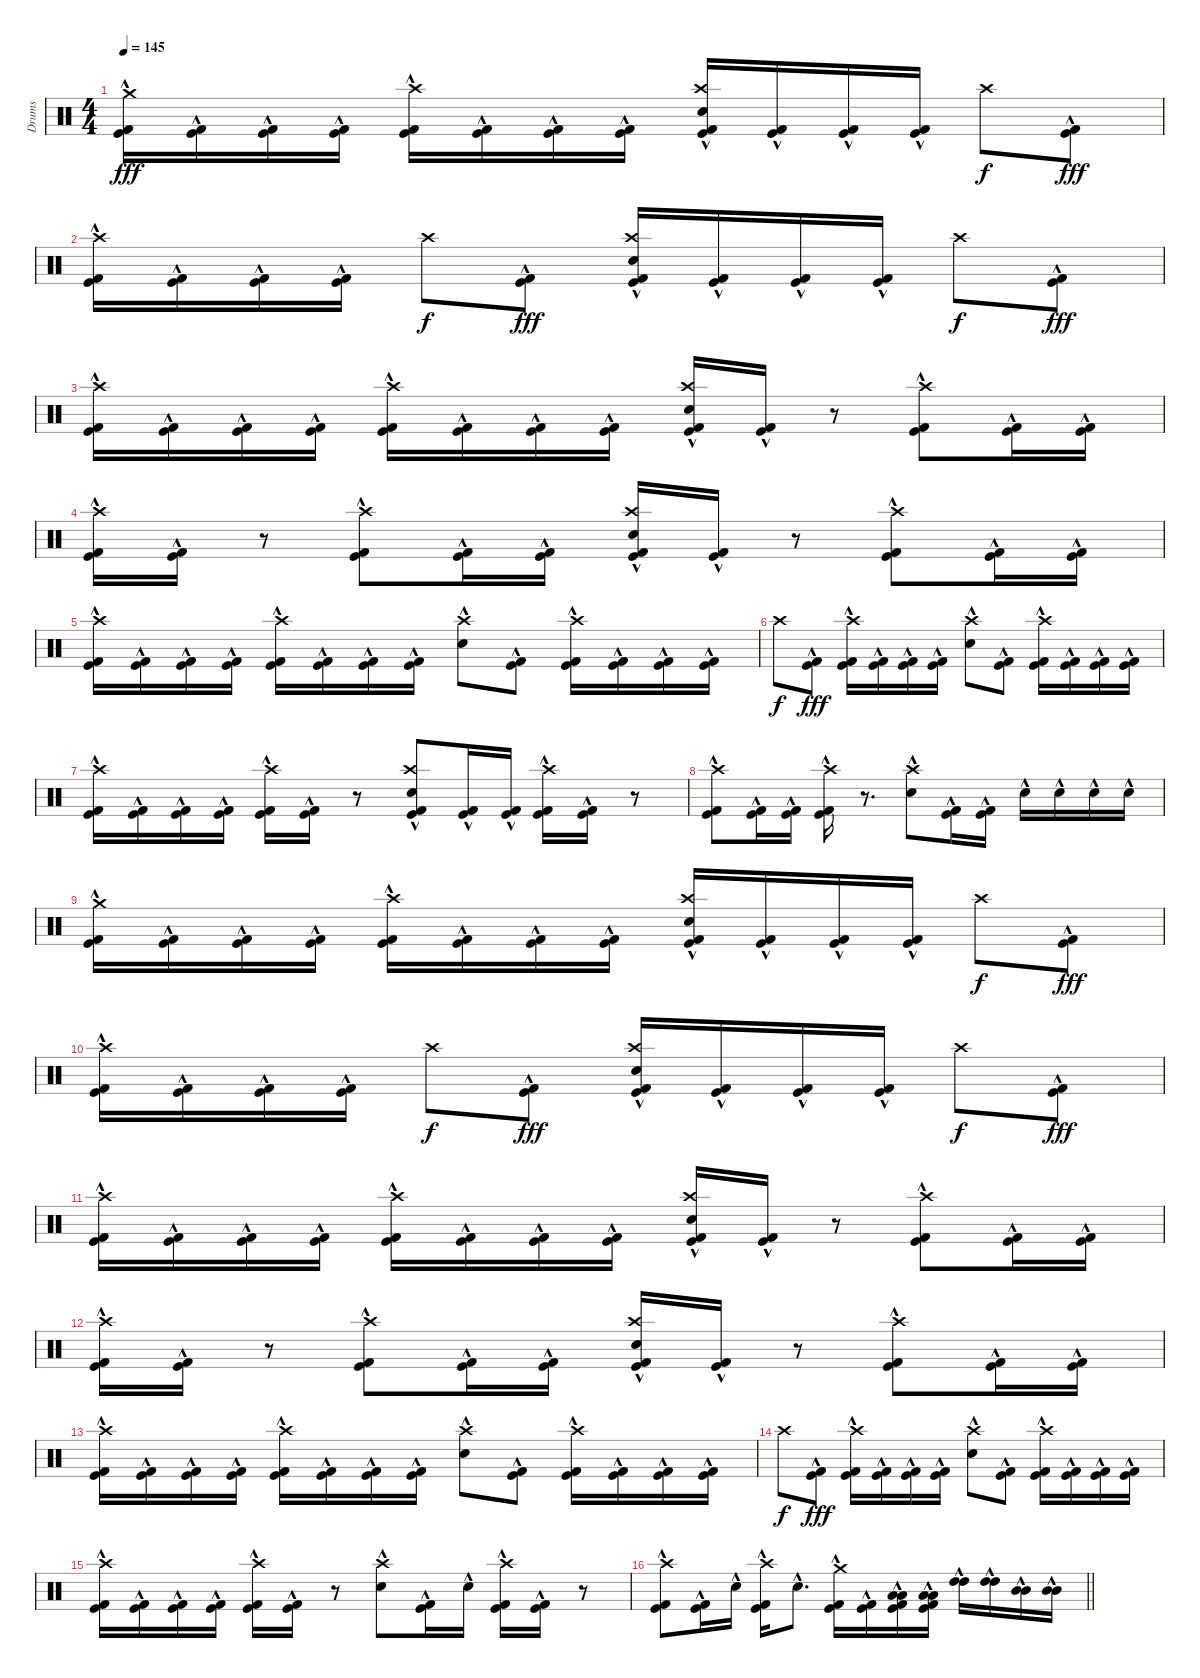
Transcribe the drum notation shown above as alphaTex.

\track ("Drums" "Drums") {instrument percussion}
\staff {score}
\articulation defaults
\ts (4 4)
\tempo 145
\clef neutral
\ks c
("Crash medium (hit)" "Kick (hit)"{hac} "Kick (hit) 2"{hac}).16{dy fff} ("Kick (hit)"{hac} "Kick (hit) 2"{hac}).16 ("Kick (hit)"{hac} "Kick (hit) 2"{hac}).16 ("Kick (hit)"{hac} "Kick (hit) 2"{hac}).16 ("Crash high (hit)" "Kick (hit)"{hac} "Kick (hit) 2"{hac}).16 ("Kick (hit)"{hac} "Kick (hit) 2"{hac}).16 ("Kick (hit)"{hac} "Kick (hit) 2"{hac}).16 ("Kick (hit)"{hac} "Kick (hit) 2"{hac}).16 ("Crash high (hit)" "Electric Snare (hit)"{hac} "Kick (hit)"{hac} "Kick (hit) 2"{hac}).16 ("Kick (hit)"{hac} "Kick (hit) 2"{hac}).16 ("Kick (hit)"{hac} "Kick (hit) 2"{hac}).16 ("Kick (hit)"{hac} "Kick (hit) 2"{hac}).16 "Crash high (hit)".8{dy f} ("Kick (hit)"{hac} "Kick (hit) 2"{hac}).8{dy fff} |
("Crash high (hit)" "Kick (hit)"{hac} "Kick (hit) 2"{hac}).16 ("Kick (hit)"{hac} "Kick (hit) 2"{hac}).16 ("Kick (hit)"{hac} "Kick (hit) 2"{hac}).16 ("Kick (hit)"{hac} "Kick (hit) 2"{hac}).16 "Crash high (hit)".8{dy f} ("Kick (hit)"{hac} "Kick (hit) 2"{hac}).8{dy fff} ("Crash high (hit)" "Electric Snare (hit)"{hac} "Kick (hit)"{hac} "Kick (hit) 2"{hac}).16 ("Kick (hit)"{hac} "Kick (hit) 2"{hac}).16 ("Kick (hit)"{hac} "Kick (hit) 2"{hac}).16 ("Kick (hit)"{hac} "Kick (hit) 2"{hac}).16 "Crash high (hit)".8{dy f} ("Kick (hit)"{hac} "Kick (hit) 2"{hac}).8{dy fff} |
("Crash high (hit)" "Kick (hit)"{hac} "Kick (hit) 2"{hac}).16 ("Kick (hit)"{hac} "Kick (hit) 2"{hac}).16 ("Kick (hit)"{hac} "Kick (hit) 2"{hac}).16 ("Kick (hit)"{hac} "Kick (hit) 2"{hac}).16 ("Crash high (hit)" "Kick (hit)"{hac} "Kick (hit) 2"{hac}).16 ("Kick (hit)"{hac} "Kick (hit) 2"{hac}).16 ("Kick (hit)"{hac} "Kick (hit) 2"{hac}).16 ("Kick (hit)"{hac} "Kick (hit) 2"{hac}).16 ("Crash high (hit)" "Electric Snare (hit)"{hac} "Kick (hit)"{hac} "Kick (hit) 2"{hac}).16 ("Kick (hit)"{hac} "Kick (hit) 2"{hac}).16 r.8 ("Crash high (hit)" "Kick (hit)"{hac} "Kick (hit) 2"{hac}).8 ("Kick (hit)"{hac} "Kick (hit) 2"{hac}).16 ("Kick (hit)"{hac} "Kick (hit) 2"{hac}).16 |
("Crash high (hit)" "Kick (hit)"{hac} "Kick (hit) 2"{hac}).16 ("Kick (hit)"{hac} "Kick (hit) 2"{hac}).16 r.8 ("Crash high (hit)" "Kick (hit)"{hac} "Kick (hit) 2"{hac}).8 ("Kick (hit)"{hac} "Kick (hit) 2"{hac}).16 ("Kick (hit)"{hac} "Kick (hit) 2"{hac}).16 ("Crash high (hit)" "Electric Snare (hit)"{hac} "Kick (hit)"{hac} "Kick (hit) 2"{hac}).16 ("Kick (hit)"{hac} "Kick (hit) 2"{hac}).16 r.8 ("Crash high (hit)" "Kick (hit)"{hac} "Kick (hit) 2"{hac}).8 ("Kick (hit)"{hac} "Kick (hit) 2"{hac}).16 ("Kick (hit)"{hac} "Kick (hit) 2"{hac}).16 |
("Crash high (hit)" "Kick (hit)"{hac} "Kick (hit) 2"{hac}).16 ("Kick (hit)"{hac} "Kick (hit) 2").16 ("Kick (hit)"{hac} "Kick (hit) 2"{hac}).16 ("Kick (hit)"{hac} "Kick (hit) 2"{hac}).16 ("Crash high (hit)" "Kick (hit)"{hac} "Kick (hit) 2"{hac}).16 ("Kick (hit)"{hac} "Kick (hit) 2"{hac}).16 ("Kick (hit)"{hac} "Kick (hit) 2"{hac}).16 ("Kick (hit)"{hac} "Kick (hit) 2"{hac}).16 ("Crash high (hit)" "Electric Snare (hit)"{hac}).8 ("Kick (hit)"{hac} "Kick (hit) 2"{hac}).8 ("Crash high (hit)" "Kick (hit)"{hac} "Kick (hit) 2"{hac}).16 ("Kick (hit)"{hac} "Kick (hit) 2"{hac}).16 ("Kick (hit)"{hac} "Kick (hit) 2"{hac}).16 ("Kick (hit)"{hac} "Kick (hit) 2"{hac}).16 |
"Crash high (hit)".8{dy f} ("Kick (hit)"{hac} "Kick (hit) 2"{hac}).8{dy fff} ("Crash high (hit)" "Kick (hit)"{hac} "Kick (hit) 2"{hac}).16 ("Kick (hit)"{hac} "Kick (hit) 2"{hac}).16 ("Kick (hit)"{hac} "Kick (hit) 2"{hac}).16 ("Kick (hit)"{hac} "Kick (hit) 2"{hac}).16 ("Crash high (hit)" "Electric Snare (hit)"{hac}).8 ("Kick (hit)"{hac} "Kick (hit) 2"{hac}).8 ("Crash high (hit)" "Kick (hit)"{hac} "Kick (hit) 2"{hac}).16 ("Kick (hit)"{hac} "Kick (hit) 2"{hac}).16 ("Kick (hit)"{hac} "Kick (hit) 2"{hac}).16 ("Kick (hit)"{hac} "Kick (hit) 2"{hac}).16 |
("Crash high (hit)" "Kick (hit)"{hac} "Kick (hit) 2"{hac}).16 ("Kick (hit)"{hac} "Kick (hit) 2"{hac}).16 ("Kick (hit)"{hac} "Kick (hit) 2"{hac}).16 ("Kick (hit)"{hac} "Kick (hit) 2"{hac}).16 ("Crash high (hit)" "Kick (hit)"{hac} "Kick (hit) 2"{hac}).16 ("Kick (hit)"{hac} "Kick (hit) 2"{hac}).16 r.8 ("Crash high (hit)" "Electric Snare (hit)"{hac} "Kick (hit)"{hac} "Kick (hit) 2"{hac}).8 ("Kick (hit)"{hac} "Kick (hit) 2"{hac}).16 ("Kick (hit)"{hac} "Kick (hit) 2"{hac}).16 ("Crash high (hit)" "Kick (hit)"{hac} "Kick (hit) 2"{hac}).16 ("Kick (hit)"{hac} "Kick (hit) 2"{hac}).16 r.8 |
("Crash high (hit)" "Kick (hit)"{hac} "Kick (hit) 2"{hac}).8 ("Kick (hit)"{hac} "Kick (hit) 2"{hac}).16 ("Kick (hit)"{hac} "Kick (hit) 2"{hac}).16 ("Crash high (hit)" "Kick (hit)"{hac} "Kick (hit) 2"{hac}).16 r.8{d} ("Crash high (hit)" "Electric Snare (hit)"{hac}).8 ("Kick (hit)"{hac} "Kick (hit) 2"{hac}).16 ("Kick (hit)"{hac} "Kick (hit) 2"{hac}).16 "Electric Snare (hit)"{hac}.16 "Electric Snare (hit)"{hac}.16 "Electric Snare (hit)"{hac}.16 "Electric Snare (hit)"{hac}.16 |
("Crash medium (hit)" "Kick (hit)"{hac} "Kick (hit) 2"{hac}).16 ("Kick (hit)"{hac} "Kick (hit) 2"{hac}).16 ("Kick (hit)"{hac} "Kick (hit) 2"{hac}).16 ("Kick (hit)"{hac} "Kick (hit) 2"{hac}).16 ("Crash high (hit)" "Kick (hit)"{hac} "Kick (hit) 2"{hac}).16 ("Kick (hit)"{hac} "Kick (hit) 2"{hac}).16 ("Kick (hit)"{hac} "Kick (hit) 2"{hac}).16 ("Kick (hit)"{hac} "Kick (hit) 2"{hac}).16 ("Crash high (hit)" "Electric Snare (hit)"{hac} "Kick (hit)"{hac} "Kick (hit) 2"{hac}).16 ("Kick (hit)"{hac} "Kick (hit) 2"{hac}).16 ("Kick (hit)"{hac} "Kick (hit) 2"{hac}).16 ("Kick (hit)"{hac} "Kick (hit) 2"{hac}).16 "Crash high (hit)".8{dy f} ("Kick (hit)"{hac} "Kick (hit) 2"{hac}).8{dy fff} |
("Crash high (hit)" "Kick (hit)"{hac} "Kick (hit) 2"{hac}).16 ("Kick (hit)"{hac} "Kick (hit) 2"{hac}).16 ("Kick (hit)"{hac} "Kick (hit) 2"{hac}).16 ("Kick (hit)"{hac} "Kick (hit) 2"{hac}).16 "Crash high (hit)".8{dy f} ("Kick (hit)"{hac} "Kick (hit) 2"{hac}).8{dy fff} ("Crash high (hit)" "Electric Snare (hit)"{hac} "Kick (hit)"{hac} "Kick (hit) 2"{hac}).16 ("Kick (hit)"{hac} "Kick (hit) 2"{hac}).16 ("Kick (hit)"{hac} "Kick (hit) 2"{hac}).16 ("Kick (hit)"{hac} "Kick (hit) 2"{hac}).16 "Crash high (hit)".8{dy f} ("Kick (hit)"{hac} "Kick (hit) 2"{hac}).8{dy fff} |
("Crash high (hit)" "Kick (hit)"{hac} "Kick (hit) 2"{hac}).16 ("Kick (hit)"{hac} "Kick (hit) 2"{hac}).16 ("Kick (hit)"{hac} "Kick (hit) 2"{hac}).16 ("Kick (hit)"{hac} "Kick (hit) 2"{hac}).16 ("Crash high (hit)" "Kick (hit)"{hac} "Kick (hit) 2"{hac}).16 ("Kick (hit)"{hac} "Kick (hit) 2"{hac}).16 ("Kick (hit)"{hac} "Kick (hit) 2"{hac}).16 ("Kick (hit)"{hac} "Kick (hit) 2"{hac}).16 ("Crash high (hit)" "Electric Snare (hit)"{hac} "Kick (hit)"{hac} "Kick (hit) 2"{hac}).16 ("Kick (hit)"{hac} "Kick (hit) 2"{hac}).16 r.8 ("Crash high (hit)" "Kick (hit)"{hac} "Kick (hit) 2"{hac}).8 ("Kick (hit)"{hac} "Kick (hit) 2"{hac}).16 ("Kick (hit)"{hac} "Kick (hit) 2"{hac}).16 |
("Crash high (hit)" "Kick (hit)"{hac} "Kick (hit) 2"{hac}).16 ("Kick (hit)"{hac} "Kick (hit) 2"{hac}).16 r.8 ("Crash high (hit)" "Kick (hit)"{hac} "Kick (hit) 2"{hac}).8 ("Kick (hit)"{hac} "Kick (hit) 2"{hac}).16 ("Kick (hit)"{hac} "Kick (hit) 2"{hac}).16 ("Crash high (hit)" "Electric Snare (hit)"{hac} "Kick (hit)"{hac} "Kick (hit) 2"{hac}).16 ("Kick (hit)"{hac} "Kick (hit) 2"{hac}).16 r.8 ("Crash high (hit)" "Kick (hit)"{hac} "Kick (hit) 2"{hac}).8 ("Kick (hit)"{hac} "Kick (hit) 2"{hac}).16 ("Kick (hit)"{hac} "Kick (hit) 2"{hac}).16 |
("Crash high (hit)" "Kick (hit)"{hac} "Kick (hit) 2"{hac}).16 ("Kick (hit)"{hac} "Kick (hit) 2"{hac}).16 ("Kick (hit)"{hac} "Kick (hit) 2"{hac}).16 ("Kick (hit)"{hac} "Kick (hit) 2"{hac}).16 ("Crash high (hit)" "Kick (hit)"{hac} "Kick (hit) 2"{hac}).16 ("Kick (hit)"{hac} "Kick (hit) 2"{hac}).16 ("Kick (hit)"{hac} "Kick (hit) 2"{hac}).16 ("Kick (hit)"{hac} "Kick (hit) 2"{hac}).16 ("Crash high (hit)" "Electric Snare (hit)"{hac}).8 ("Kick (hit)"{hac} "Kick (hit) 2"{hac}).8 ("Crash high (hit)" "Kick (hit)"{hac} "Kick (hit) 2"{hac}).16 ("Kick (hit)"{hac} "Kick (hit) 2"{hac}).16 ("Kick (hit)"{hac} "Kick (hit) 2"{hac}).16 ("Kick (hit)"{hac} "Kick (hit) 2"{hac}).16 |
"Crash high (hit)".8{dy f} ("Kick (hit)"{hac} "Kick (hit) 2"{hac}).8{dy fff} ("Crash high (hit)" "Kick (hit)"{hac} "Kick (hit) 2"{hac}).16 ("Kick (hit)"{hac} "Kick (hit) 2"{hac}).16 ("Kick (hit)"{hac} "Kick (hit) 2"{hac}).16 ("Kick (hit)"{hac} "Kick (hit) 2"{hac}).16 ("Crash high (hit)" "Electric Snare (hit)"{hac}).8 ("Kick (hit)"{hac} "Kick (hit) 2"{hac}).8 ("Crash high (hit)" "Kick (hit)"{hac} "Kick (hit) 2"{hac}).16 ("Kick (hit)"{hac} "Kick (hit) 2"{hac}).16 ("Kick (hit)"{hac} "Kick (hit) 2"{hac}).16 ("Kick (hit)"{hac} "Kick (hit) 2"{hac}).16 |
("Crash high (hit)" "Kick (hit)"{hac} "Kick (hit) 2"{hac}).16 ("Kick (hit)"{hac} "Kick (hit) 2"{hac}).16 ("Kick (hit)"{hac} "Kick (hit) 2"{hac}).16 ("Kick (hit)"{hac} "Kick (hit) 2"{hac}).16 ("Crash high (hit)" "Kick (hit)"{hac} "Kick (hit) 2"{hac}).16 ("Kick (hit)"{hac} "Kick (hit) 2"{hac}).16 r.8 ("Crash high (hit)" "Electric Snare (hit)"{hac}).8 ("Kick (hit)"{hac} "Kick (hit) 2"{hac}).16 "Electric Snare (hit)"{hac}.16 ("Crash high (hit)" "Kick (hit)"{hac} "Kick (hit) 2"{hac}).16 ("Kick (hit)"{hac} "Kick (hit) 2"{hac}).16 r.8 |
\barLineRight lightlight
("Crash high (hit)" "Kick (hit)"{hac} "Kick (hit) 2"{hac}).8 ("Kick (hit)"{hac} "Kick (hit) 2"{hac}).16 "Electric Snare (hit)"{hac}.16 ("Crash high (hit)" "Kick (hit)"{hac} "Kick (hit) 2"{hac}).16 "Electric Snare (hit)"{hac}.8{d} ("Crash medium (hit)" "Kick (hit)"{hac} "Kick (hit) 2"{hac}).16 ("Kick (hit)"{hac} "Kick (hit) 2"{hac}).16 ("Low Floor Tom (hit)"{hac} "Low Floor Tom (hit)"{hac} "Kick (hit)"{hac} "Kick (hit) 2"{hac}).16 ("Low Floor Tom (hit)"{hac} "Low Floor Tom (hit)"{hac} "Kick (hit)"{hac} "Kick (hit) 2"{hac}).16 ("High Tom (hit)"{hac} "High Tom (hit)"{hac}).16 ("High Tom (hit)"{hac} "High Tom (hit)"{hac}).16 ("Mid Tom (hit)"{hac} "Mid Tom (hit)"{hac}).16 ("Mid Tom (hit)"{hac} "Mid Tom (hit)"{hac}).16
